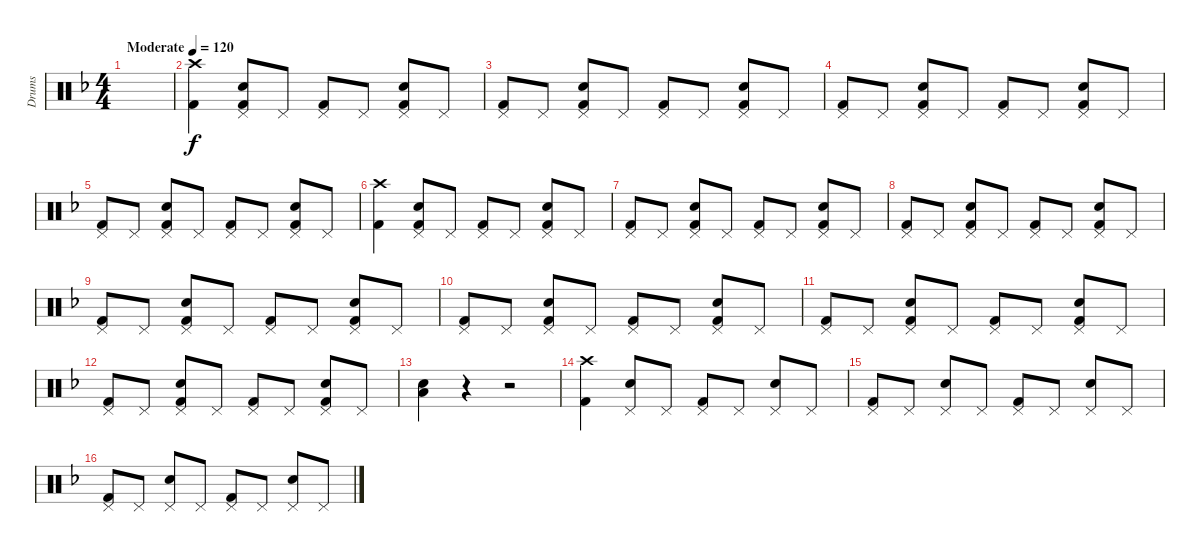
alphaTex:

\track ("Drums" "Drums") {instrument percussion}
\staff {score}
\articulation defaults
\ts (4 4)
\tempo (120 "Moderate")
\clef neutral
\ks f
|
("Crash high (hit)" "Kick (hit) 2").4 ("Pedal Hi-Hat (hit)" "Electric Snare (hit)" "Kick (hit) 2").8 "Pedal Hi-Hat (hit)".8 ("Pedal Hi-Hat (hit)" "Kick (hit) 2").8 "Pedal Hi-Hat (hit)".8 ("Pedal Hi-Hat (hit)" "Electric Snare (hit)" "Kick (hit) 2").8 "Pedal Hi-Hat (hit)".8 |
("Pedal Hi-Hat (hit)" "Kick (hit) 2").8 "Pedal Hi-Hat (hit)".8 ("Pedal Hi-Hat (hit)" "Electric Snare (hit)" "Kick (hit) 2").8 "Pedal Hi-Hat (hit)".8 ("Pedal Hi-Hat (hit)" "Kick (hit) 2").8 "Pedal Hi-Hat (hit)".8 ("Pedal Hi-Hat (hit)" "Electric Snare (hit)" "Kick (hit) 2").8 "Pedal Hi-Hat (hit)".8 |
("Pedal Hi-Hat (hit)" "Kick (hit) 2").8 "Pedal Hi-Hat (hit)".8 ("Pedal Hi-Hat (hit)" "Electric Snare (hit)" "Kick (hit) 2").8 "Pedal Hi-Hat (hit)".8 ("Pedal Hi-Hat (hit)" "Kick (hit) 2").8 "Pedal Hi-Hat (hit)".8 ("Pedal Hi-Hat (hit)" "Electric Snare (hit)" "Kick (hit) 2").8 "Pedal Hi-Hat (hit)".8 |
("Pedal Hi-Hat (hit)" "Kick (hit) 2").8 "Pedal Hi-Hat (hit)".8 ("Pedal Hi-Hat (hit)" "Electric Snare (hit)" "Kick (hit) 2").8 "Pedal Hi-Hat (hit)".8 ("Pedal Hi-Hat (hit)" "Kick (hit) 2").8 "Pedal Hi-Hat (hit)".8 ("Pedal Hi-Hat (hit)" "Electric Snare (hit)" "Kick (hit) 2").8 "Pedal Hi-Hat (hit)".8 |
("Crash high (hit)" "Kick (hit) 2").4 ("Pedal Hi-Hat (hit)" "Electric Snare (hit)" "Kick (hit) 2").8 "Pedal Hi-Hat (hit)".8 ("Pedal Hi-Hat (hit)" "Kick (hit) 2").8 "Pedal Hi-Hat (hit)".8 ("Pedal Hi-Hat (hit)" "Electric Snare (hit)" "Kick (hit) 2").8 "Pedal Hi-Hat (hit)".8 |
("Pedal Hi-Hat (hit)" "Kick (hit) 2").8 "Pedal Hi-Hat (hit)".8 ("Pedal Hi-Hat (hit)" "Electric Snare (hit)" "Kick (hit) 2").8 "Pedal Hi-Hat (hit)".8 ("Pedal Hi-Hat (hit)" "Kick (hit) 2").8 "Pedal Hi-Hat (hit)".8 ("Pedal Hi-Hat (hit)" "Electric Snare (hit)" "Kick (hit) 2").8 "Pedal Hi-Hat (hit)".8 |
("Pedal Hi-Hat (hit)" "Kick (hit) 2").8 "Pedal Hi-Hat (hit)".8 ("Pedal Hi-Hat (hit)" "Electric Snare (hit)" "Kick (hit) 2").8 "Pedal Hi-Hat (hit)".8 ("Pedal Hi-Hat (hit)" "Kick (hit) 2").8 "Pedal Hi-Hat (hit)".8 ("Pedal Hi-Hat (hit)" "Electric Snare (hit)" "Kick (hit) 2").8 "Pedal Hi-Hat (hit)".8 |
("Pedal Hi-Hat (hit)" "Kick (hit) 2").8 "Pedal Hi-Hat (hit)".8 ("Pedal Hi-Hat (hit)" "Electric Snare (hit)" "Kick (hit) 2").8 "Pedal Hi-Hat (hit)".8 ("Pedal Hi-Hat (hit)" "Kick (hit) 2").8 "Pedal Hi-Hat (hit)".8 ("Pedal Hi-Hat (hit)" "Electric Snare (hit)" "Kick (hit) 2").8 "Pedal Hi-Hat (hit)".8 |
("Pedal Hi-Hat (hit)" "Kick (hit) 2").8 "Pedal Hi-Hat (hit)".8 ("Pedal Hi-Hat (hit)" "Electric Snare (hit)" "Kick (hit) 2").8 "Pedal Hi-Hat (hit)".8 ("Pedal Hi-Hat (hit)" "Kick (hit) 2").8 "Pedal Hi-Hat (hit)".8 ("Pedal Hi-Hat (hit)" "Electric Snare (hit)" "Kick (hit) 2").8 "Pedal Hi-Hat (hit)".8 |
("Pedal Hi-Hat (hit)" "Kick (hit) 2").8 "Pedal Hi-Hat (hit)".8 ("Pedal Hi-Hat (hit)" "Electric Snare (hit)" "Kick (hit) 2").8 "Pedal Hi-Hat (hit)".8 ("Pedal Hi-Hat (hit)" "Kick (hit) 2").8 "Pedal Hi-Hat (hit)".8 ("Pedal Hi-Hat (hit)" "Electric Snare (hit)" "Kick (hit) 2").8 "Pedal Hi-Hat (hit)".8 |
("Pedal Hi-Hat (hit)" "Kick (hit) 2").8 "Pedal Hi-Hat (hit)".8 ("Pedal Hi-Hat (hit)" "Electric Snare (hit)" "Kick (hit) 2").8 "Pedal Hi-Hat (hit)".8 ("Pedal Hi-Hat (hit)" "Kick (hit) 2").8 "Pedal Hi-Hat (hit)".8 ("Pedal Hi-Hat (hit)" "Electric Snare (hit)" "Kick (hit) 2").8 "Pedal Hi-Hat (hit)".8 |
("Electric Snare (hit)" "Low Floor Tom (hit)").4 r.4 r.2 |
("Crash high (hit)" "Kick (hit) 2").4 ("Pedal Hi-Hat (hit)" "Electric Snare (hit)").8 "Pedal Hi-Hat (hit)".8 ("Pedal Hi-Hat (hit)" "Kick (hit) 2").8 "Pedal Hi-Hat (hit)".8 ("Pedal Hi-Hat (hit)" "Electric Snare (hit)").8 "Pedal Hi-Hat (hit)".8 |
("Pedal Hi-Hat (hit)" "Kick (hit) 2").8 "Pedal Hi-Hat (hit)".8 ("Pedal Hi-Hat (hit)" "Electric Snare (hit)").8 "Pedal Hi-Hat (hit)".8 ("Pedal Hi-Hat (hit)" "Kick (hit) 2").8 "Pedal Hi-Hat (hit)".8 ("Pedal Hi-Hat (hit)" "Electric Snare (hit)").8 "Pedal Hi-Hat (hit)".8 |
("Pedal Hi-Hat (hit)" "Kick (hit) 2").8 "Pedal Hi-Hat (hit)".8 ("Pedal Hi-Hat (hit)" "Electric Snare (hit)").8 "Pedal Hi-Hat (hit)".8 ("Pedal Hi-Hat (hit)" "Kick (hit) 2").8 "Pedal Hi-Hat (hit)".8 ("Pedal Hi-Hat (hit)" "Electric Snare (hit)").8 "Pedal Hi-Hat (hit)".8
